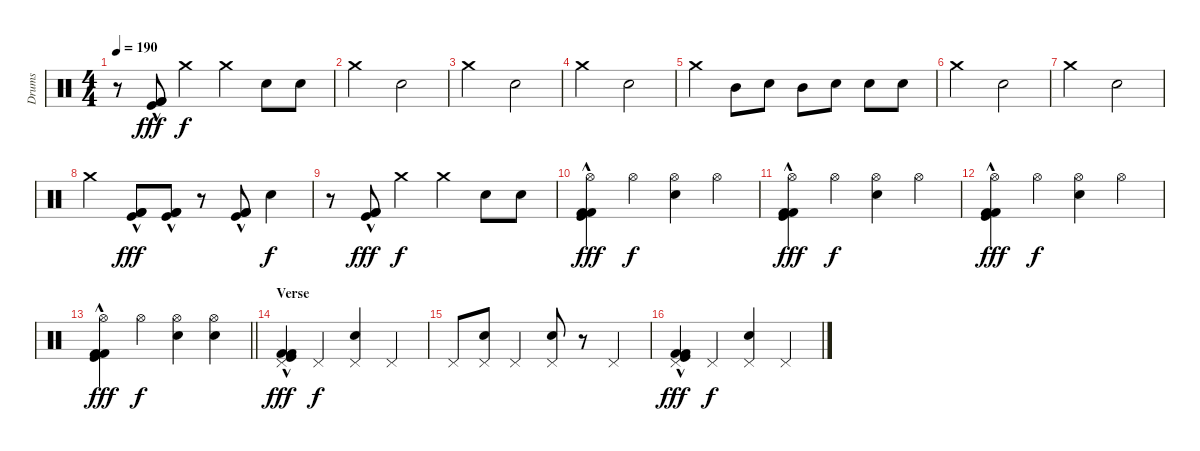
\track ("Drums" "Drums") {instrument percussion}
\staff {score}
\articulation defaults
\ts (4 4)
\tempo 190
\clef neutral
\ks c
r.8{dy f} ("Kick (hit) 2"{hac} "Kick (hit)"{hac} "Kick (hit) 2"{hac}).8{dy fff} "Crash medium (hit)".4{dy f} "Crash medium (hit)".4 "Snare (hit) 2".8 "Snare (hit) 2".8 |
"Crash medium (hit)".2 "Snare (hit) 2".2 |
"Crash medium (hit)".2 "Snare (hit) 2".2 |
"Crash medium (hit)".2 "Snare (hit) 2".2 |
"Crash medium (hit)".4 "Mid Tom (hit)".8 "Snare (hit) 2".8 "Mid Tom (hit)".8 "Snare (hit) 2".8 "Snare (hit) 2".8 "Snare (hit) 2".8 |
"Crash medium (hit)".2 "Snare (hit) 2".2 |
"Crash medium (hit)".2 "Snare (hit) 2".2 |
"Crash medium (hit)".4 ("Kick (hit) 2"{hac} "Kick (hit)"{hac} "Kick (hit) 2"{hac}).8{dy fff} ("Kick (hit) 2"{hac} "Kick (hit)"{hac} "Kick (hit) 2"{hac}).8 r.8 ("Kick (hit) 2"{hac} "Kick (hit)"{hac} "Kick (hit) 2"{hac}).8 "Snare (hit) 2".4{dy f} |
r.8 ("Kick (hit) 2"{hac} "Kick (hit)"{hac} "Kick (hit) 2"{hac}).8{dy fff} "Crash medium (hit)".4{dy f} "Crash medium (hit)".4 "Snare (hit) 2".8 "Snare (hit) 2".8 |
("Hi-Hat (open)" "Kick (hit) 2"{hac} "Kick (hit)"{hac} "Kick (hit) 2"{hac}).4{dy fff} "Hi-Hat (open)".4{dy f} ("Hi-Hat (open)" "Snare (hit) 2").4 "Hi-Hat (open)".4 |
("Hi-Hat (open)" "Kick (hit) 2"{hac} "Kick (hit)"{hac} "Kick (hit) 2"{hac}).4{dy fff} "Hi-Hat (open)".4{dy f} ("Hi-Hat (open)" "Snare (hit) 2").4 "Hi-Hat (open)".4 |
("Hi-Hat (open)" "Kick (hit) 2"{hac} "Kick (hit)"{hac} "Kick (hit) 2"{hac}).4{dy fff} "Hi-Hat (open)".4{dy f} ("Hi-Hat (open)" "Snare (hit) 2").4 "Hi-Hat (open)".4 |
\barLineRight lightlight
("Hi-Hat (open)" "Kick (hit) 2"{hac} "Kick (hit)"{hac} "Kick (hit) 2"{hac}).4{dy fff} "Hi-Hat (open)".4{dy f} ("Hi-Hat (open)" "Snare (hit) 2").4 ("Hi-Hat (open)" "Snare (hit) 2").4 |
\section ("" "Verse")
("Pedal Hi-Hat (hit)" "Kick (hit) 2"{hac} "Kick (hit)"{hac} "Kick (hit) 2"{hac}).4{dy fff} "Pedal Hi-Hat (hit)".4{dy f} ("Pedal Hi-Hat (hit)" "Snare (hit) 2").4 "Pedal Hi-Hat (hit)".4 |
"Pedal Hi-Hat (hit)".8 ("Pedal Hi-Hat (hit)" "Snare (hit) 2").8 "Pedal Hi-Hat (hit)".4 ("Pedal Hi-Hat (hit)" "Snare (hit) 2").8 r.8 "Pedal Hi-Hat (hit)".4 |
("Pedal Hi-Hat (hit)" "Kick (hit) 2"{hac} "Kick (hit)"{hac} "Kick (hit) 2"{hac}).4{dy fff} "Pedal Hi-Hat (hit)".4{dy f} ("Pedal Hi-Hat (hit)" "Snare (hit) 2").4 "Pedal Hi-Hat (hit)".4
